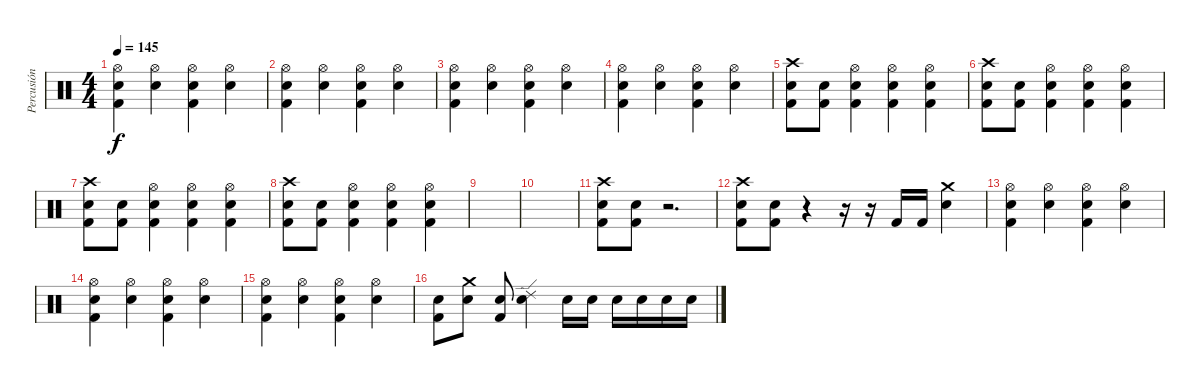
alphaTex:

\track ("Percusión" "Percusión") {instrument percussion}
\staff {score}
\articulation defaults
\ts (4 4)
\tempo 145
\clef neutral
\ks c
("Hi-Hat (open)" "Snare (hit) 2" "Kick (hit) 2").4{dy f} ("Hi-Hat (open)" "Snare (hit) 2").4 ("Hi-Hat (open)" "Snare (hit) 2" "Kick (hit) 2").4 ("Hi-Hat (open)" "Snare (hit) 2").4 |
("Hi-Hat (open)" "Snare (hit) 2" "Kick (hit) 2").4 ("Hi-Hat (open)" "Snare (hit) 2").4 ("Hi-Hat (open)" "Snare (hit) 2" "Kick (hit) 2").4 ("Hi-Hat (open)" "Snare (hit) 2").4 |
("Hi-Hat (open)" "Snare (hit) 2" "Kick (hit) 2").4 ("Hi-Hat (open)" "Snare (hit) 2").4 ("Hi-Hat (open)" "Snare (hit) 2" "Kick (hit) 2").4 ("Hi-Hat (open)" "Snare (hit) 2").4 |
("Hi-Hat (open)" "Snare (hit) 2" "Kick (hit) 2").4 ("Hi-Hat (open)" "Snare (hit) 2").4 ("Hi-Hat (open)" "Snare (hit) 2" "Kick (hit) 2").4 ("Hi-Hat (open)" "Snare (hit) 2").4 |
("Crash high (hit)" "Snare (hit) 2" "Kick (hit) 2").8 ("Snare (hit) 2" "Kick (hit) 2").8 ("Hi-Hat (open)" "Snare (hit) 2" "Kick (hit) 2").4 ("Hi-Hat (open)" "Snare (hit) 2" "Kick (hit) 2").4 ("Hi-Hat (open)" "Snare (hit) 2" "Kick (hit) 2").4 |
("Crash high (hit)" "Snare (hit) 2" "Kick (hit) 2").8 ("Snare (hit) 2" "Kick (hit) 2").8 ("Hi-Hat (open)" "Snare (hit) 2" "Kick (hit) 2").4 ("Hi-Hat (open)" "Snare (hit) 2" "Kick (hit) 2").4 ("Hi-Hat (open)" "Snare (hit) 2" "Kick (hit) 2").4 |
("Crash high (hit)" "Snare (hit) 2" "Kick (hit) 2").8 ("Snare (hit) 2" "Kick (hit) 2").8 ("Hi-Hat (open)" "Snare (hit) 2" "Kick (hit) 2").4 ("Hi-Hat (open)" "Snare (hit) 2" "Kick (hit) 2").4 ("Hi-Hat (open)" "Snare (hit) 2" "Kick (hit) 2").4 |
("Crash high (hit)" "Snare (hit) 2" "Kick (hit) 2").8 ("Snare (hit) 2" "Kick (hit) 2").8 ("Hi-Hat (open)" "Snare (hit) 2" "Kick (hit) 2").4 ("Hi-Hat (open)" "Snare (hit) 2" "Kick (hit) 2").4 ("Hi-Hat (open)" "Snare (hit) 2" "Kick (hit) 2").4 |
|
|
("Crash high (hit)" "Snare (hit) 2" "Kick (hit) 2").8 ("Snare (hit) 2" "Kick (hit) 2").8 r.2{d} |
("Crash high (hit)" "Snare (hit) 2" "Kick (hit) 2").8 ("Snare (hit) 2" "Kick (hit) 2").8 r.4 r.16 r.16 "Kick (hit) 2".16 "Kick (hit) 2".16 ("Crash medium (hit)" "Snare (hit) 2").4 |
("Hi-Hat (open)" "Snare (hit) 2" "Kick (hit) 2").4 ("Hi-Hat (open)" "Snare (hit) 2").4 ("Hi-Hat (open)" "Snare (hit) 2" "Kick (hit) 2").4 ("Hi-Hat (open)" "Snare (hit) 2").4 |
("Hi-Hat (open)" "Snare (hit) 2" "Kick (hit) 2").4 ("Hi-Hat (open)" "Snare (hit) 2").4 ("Hi-Hat (open)" "Snare (hit) 2" "Kick (hit) 2").4 ("Hi-Hat (open)" "Snare (hit) 2").4 |
("Hi-Hat (open)" "Snare (hit) 2" "Kick (hit) 2").4 ("Hi-Hat (open)" "Snare (hit) 2").4 ("Hi-Hat (open)" "Snare (hit) 2" "Kick (hit) 2").4 ("Hi-Hat (open)" "Snare (hit) 2").4 |
("Snare (hit) 2" "Kick (hit) 2").8 ("Crash medium (hit)" "Snare (hit) 2").8 ("Snare (hit) 2" "Kick (hit) 2").8 ("Ride (edge) 2" "Snare (hit) 2").4 "Snare (hit) 2".16 "Snare (hit) 2".16 "Snare (hit) 2".16 "Snare (hit) 2".16 "Snare (hit) 2".16 "Snare (hit) 2".16
